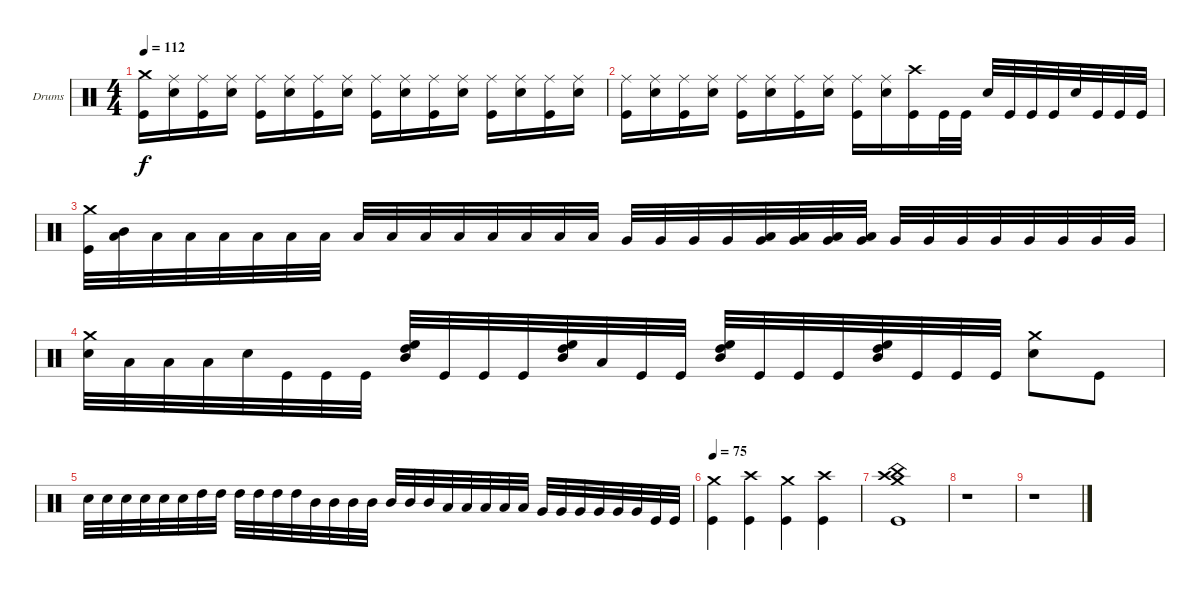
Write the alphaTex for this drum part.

\bracketExtendMode groupsimilarinstruments
\firstSystemTrackNameOrientation horizontal
\otherSystemsTrackNameOrientation horizontal
\track ("Drumkit" "Drums") {instrument percussion}
\staff {score}
\articulation defaults
\ts (4 4)
\tempo 112
\clef neutral
\ks c
("Crash medium (hit)" "Kick (hit)").16{dy f} ("Ride (middle)" "Snare (hit) 2").16 ("Ride (middle)" "Kick (hit)").16 ("Ride (middle)" "Snare (hit) 2").16 ("Ride (middle)" "Kick (hit)").16 ("Ride (middle)" "Snare (hit) 2").16 ("Ride (middle)" "Kick (hit)").16 ("Ride (middle)" "Snare (hit) 2").16 ("Ride (middle)" "Kick (hit)").16 ("Ride (middle)" "Snare (hit) 2").16 ("Ride (middle)" "Kick (hit)").16 ("Ride (middle)" "Snare (hit) 2").16 ("Ride (middle)" "Kick (hit)").16 ("Ride (middle)" "Snare (hit) 2").16 ("Ride (middle)" "Kick (hit)").16 ("Ride (middle)" "Snare (hit) 2").16 |
("Ride (middle)" "Kick (hit)").16 ("Ride (middle)" "Snare (hit) 2").16 ("Ride (middle)" "Kick (hit)").16 ("Ride (middle)" "Snare (hit) 2").16 ("Ride (middle)" "Kick (hit)").16 ("Ride (middle)" "Snare (hit) 2").16 ("Ride (middle)" "Kick (hit)").16 ("Ride (middle)" "Snare (hit) 2").16 ("Ride (middle)" "Kick (hit)").16 ("Ride (middle)" "Snare (hit) 2").16 ("Crash high (hit)" "Kick (hit)").16 "Kick (hit)".32 "Kick (hit)".32 "Snare (hit) 2".32 "Kick (hit)".32 "Kick (hit)".32 "Kick (hit)".32 "Snare (hit) 2".32 "Kick (hit)".32 "Kick (hit)".32 "Kick (hit)".32 |
("Crash medium (hit)" "Kick (hit)").32 ("Low Tom (hit)" "Mid Tom (hit)").32 "Low Tom (hit)".32 "Low Tom (hit)".32 "Low Tom (hit)".32 "Low Tom (hit)".32 "Low Tom (hit)".32 "Low Tom (hit)".32 "Low Tom (hit)".32 "Low Tom (hit)".32 "Low Tom (hit)".32 "Low Tom (hit)".32 "Low Tom (hit)".32 "Low Tom (hit)".32 "Low Tom (hit)".32 "Low Tom (hit)".32 "Very Low Tom (hit)".32 "Very Low Tom (hit)".32 "Very Low Tom (hit)".32 "Very Low Tom (hit)".32 ("Very Low Tom (hit)" "Low Tom (hit)").32 ("Very Low Tom (hit)" "Low Tom (hit)").32 ("Very Low Tom (hit)" "Low Tom (hit)").32 ("Very Low Tom (hit)" "Low Tom (hit)").32 "Very Low Tom (hit)".32 "Very Low Tom (hit)".32 "Very Low Tom (hit)".32 "Very Low Tom (hit)".32 "Very Low Tom (hit)".32 "Very Low Tom (hit)".32 "Very Low Tom (hit)".32 "Very Low Tom (hit)".32 |
("Snare (hit) 2" "Crash medium (hit)").32 "Low Tom (hit)".32 "Low Tom (hit)".32 "Low Tom (hit)".32 "Snare (hit) 2".32 "Kick (hit)".32 "Kick (hit)".32 "Kick (hit)".32 ("High Floor Tom (hit)" "Mid Tom (hit)" "High Tom (hit)").32 "Kick (hit)".32 "Kick (hit)".32 "Kick (hit)".32 ("High Floor Tom (hit)" "Mid Tom (hit)" "High Tom (hit)").32 "Low Tom (hit)".32 "Kick (hit)".32 "Kick (hit)".32 ("High Floor Tom (hit)" "Mid Tom (hit)" "High Tom (hit)").32 "Kick (hit)".32 "Kick (hit)".32 "Kick (hit)".32 ("High Floor Tom (hit)" "Mid Tom (hit)" "High Tom (hit)").32 "Kick (hit)".32 "Kick (hit)".32 "Kick (hit)".32 ("Snare (hit) 2" "Crash medium (hit)").8 "Kick (hit)".8 |
"Snare (hit) 2".32 "Snare (hit) 2".32 "Snare (hit) 2".32 "Snare (hit) 2".32 "Snare (hit) 2".32 "Snare (hit) 2".32 "High Tom (hit)".32 "High Tom (hit)".32 "High Tom (hit)".32 "High Tom (hit)".32 "High Tom (hit)".32 "High Tom (hit)".32 "Mid Tom (hit)".32 "Mid Tom (hit)".32 "Mid Tom (hit)".32 "Mid Tom (hit)".32 "Mid Tom (hit)".32 "Mid Tom (hit)".32 "Mid Tom (hit)".32 "Low Tom (hit)".32 "Low Tom (hit)".32 "Low Tom (hit)".32 "Low Tom (hit)".32 "Low Tom (hit)".32 "Very Low Tom (hit)".32 "Very Low Tom (hit)".32 "Very Low Tom (hit)".32 "Very Low Tom (hit)".32 "Very Low Tom (hit)".32 "Very Low Tom (hit)".32 "Kick (hit)".32 "Kick (hit)".32 |
\tempo 75
("Crash medium (hit)" "Kick (hit)").4 ("Crash high (hit)" "Kick (hit)").4 ("Crash medium (hit)" "Kick (hit)").4 ("Crash high (hit)" "Kick (hit)").4 |
("Crash medium (hit)" "Kick (hit)" "Crash high (hit)" "China (hit)").1 |
r.1 |
r.1
